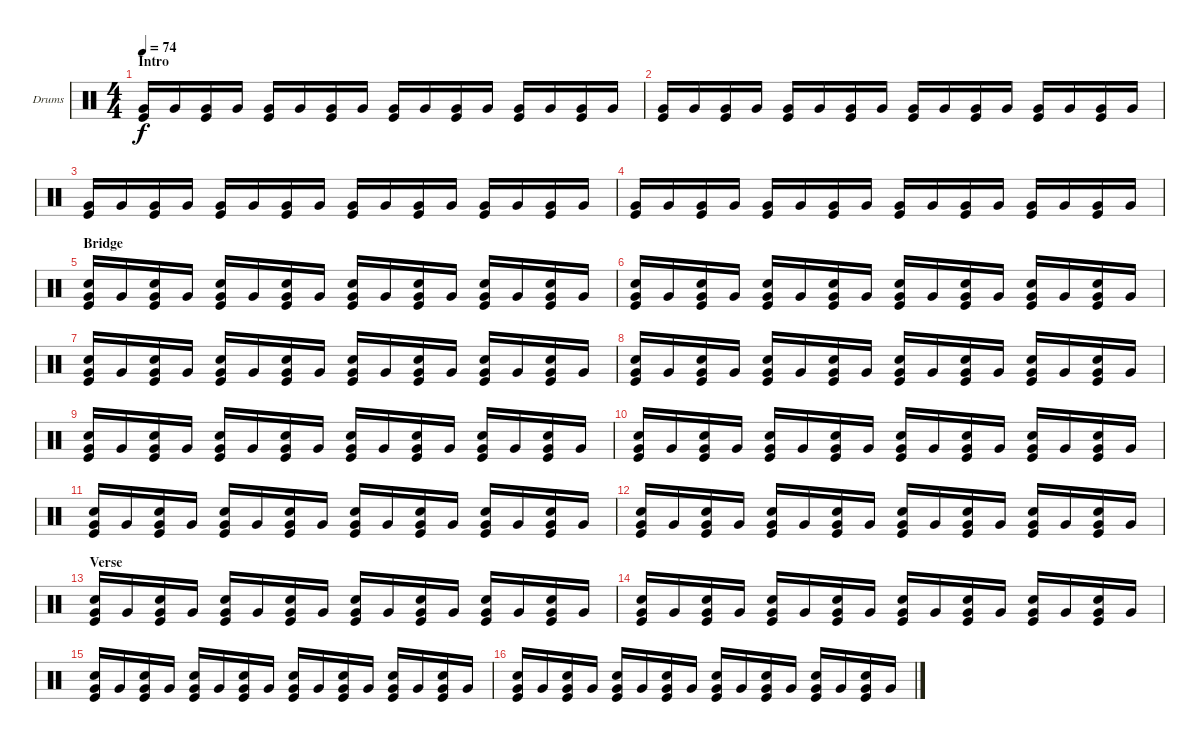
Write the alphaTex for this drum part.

\bracketExtendMode groupsimilarinstruments
\firstSystemTrackNameOrientation horizontal
\otherSystemsTrackNameOrientation horizontal
\track ("Fabrizio" "Drums") {instrument percussion}
\staff {score}
\articulation defaults
\ts (4 4)
\section ("" "Intro")
\tempo 74
\clef neutral
\ks c
("Very Low Tom (hit)" "Kick (hit)").16{dy f} "Very Low Tom (hit)".16 ("Very Low Tom (hit)" "Kick (hit)").16 "Very Low Tom (hit)".16 ("Very Low Tom (hit)" "Kick (hit)").16 "Very Low Tom (hit)".16 ("Very Low Tom (hit)" "Kick (hit)").16 "Very Low Tom (hit)".16 ("Very Low Tom (hit)" "Kick (hit)").16 "Very Low Tom (hit)".16 ("Very Low Tom (hit)" "Kick (hit)").16 "Very Low Tom (hit)".16 ("Very Low Tom (hit)" "Kick (hit)").16 "Very Low Tom (hit)".16 ("Very Low Tom (hit)" "Kick (hit)").16 "Very Low Tom (hit)".16 |
("Very Low Tom (hit)" "Kick (hit)").16 "Very Low Tom (hit)".16 ("Very Low Tom (hit)" "Kick (hit)").16 "Very Low Tom (hit)".16 ("Very Low Tom (hit)" "Kick (hit)").16 "Very Low Tom (hit)".16 ("Very Low Tom (hit)" "Kick (hit)").16 "Very Low Tom (hit)".16 ("Very Low Tom (hit)" "Kick (hit)").16 "Very Low Tom (hit)".16 ("Very Low Tom (hit)" "Kick (hit)").16 "Very Low Tom (hit)".16 ("Very Low Tom (hit)" "Kick (hit)").16 "Very Low Tom (hit)".16 ("Very Low Tom (hit)" "Kick (hit)").16 "Very Low Tom (hit)".16 |
("Very Low Tom (hit)" "Kick (hit)").16 "Very Low Tom (hit)".16 ("Very Low Tom (hit)" "Kick (hit)").16 "Very Low Tom (hit)".16 ("Very Low Tom (hit)" "Kick (hit)").16 "Very Low Tom (hit)".16 ("Very Low Tom (hit)" "Kick (hit)").16 "Very Low Tom (hit)".16 ("Very Low Tom (hit)" "Kick (hit)").16 "Very Low Tom (hit)".16 ("Very Low Tom (hit)" "Kick (hit)").16 "Very Low Tom (hit)".16 ("Very Low Tom (hit)" "Kick (hit)").16 "Very Low Tom (hit)".16 ("Very Low Tom (hit)" "Kick (hit)").16 "Very Low Tom (hit)".16 |
("Very Low Tom (hit)" "Kick (hit)").16 "Very Low Tom (hit)".16 ("Very Low Tom (hit)" "Kick (hit)").16 "Very Low Tom (hit)".16 ("Very Low Tom (hit)" "Kick (hit)").16 "Very Low Tom (hit)".16 ("Very Low Tom (hit)" "Kick (hit)").16 "Very Low Tom (hit)".16 ("Very Low Tom (hit)" "Kick (hit)").16 "Very Low Tom (hit)".16 ("Very Low Tom (hit)" "Kick (hit)").16 "Very Low Tom (hit)".16 ("Very Low Tom (hit)" "Kick (hit)").16 "Very Low Tom (hit)".16 ("Very Low Tom (hit)" "Kick (hit)").16 "Very Low Tom (hit)".16 |
\section ("" "Bridge")
("Very Low Tom (hit)" "Kick (hit)" "Snare (hit) 2").16 "Very Low Tom (hit)".16 ("Very Low Tom (hit)" "Kick (hit)" "Snare (hit) 2").16 "Very Low Tom (hit)".16 ("Very Low Tom (hit)" "Kick (hit)" "Snare (hit) 2").16 "Very Low Tom (hit)".16 ("Very Low Tom (hit)" "Kick (hit)" "Snare (hit) 2").16 "Very Low Tom (hit)".16 ("Very Low Tom (hit)" "Kick (hit)" "Snare (hit) 2").16 "Very Low Tom (hit)".16 ("Very Low Tom (hit)" "Kick (hit)" "Snare (hit) 2").16 "Very Low Tom (hit)".16 ("Very Low Tom (hit)" "Kick (hit)" "Snare (hit) 2").16 "Very Low Tom (hit)".16 ("Very Low Tom (hit)" "Kick (hit)" "Snare (hit) 2").16 "Very Low Tom (hit)".16 |
("Very Low Tom (hit)" "Kick (hit)" "Snare (hit) 2").16 "Very Low Tom (hit)".16 ("Very Low Tom (hit)" "Kick (hit)" "Snare (hit) 2").16 "Very Low Tom (hit)".16 ("Very Low Tom (hit)" "Kick (hit)" "Snare (hit) 2").16 "Very Low Tom (hit)".16 ("Very Low Tom (hit)" "Kick (hit)" "Snare (hit) 2").16 "Very Low Tom (hit)".16 ("Very Low Tom (hit)" "Kick (hit)" "Snare (hit) 2").16 "Very Low Tom (hit)".16 ("Very Low Tom (hit)" "Kick (hit)" "Snare (hit) 2").16 "Very Low Tom (hit)".16 ("Very Low Tom (hit)" "Kick (hit)" "Snare (hit) 2").16 "Very Low Tom (hit)".16 ("Very Low Tom (hit)" "Kick (hit)" "Snare (hit) 2").16 "Very Low Tom (hit)".16 |
("Very Low Tom (hit)" "Kick (hit)" "Snare (hit) 2").16 "Very Low Tom (hit)".16 ("Very Low Tom (hit)" "Kick (hit)" "Snare (hit) 2").16 "Very Low Tom (hit)".16 ("Very Low Tom (hit)" "Kick (hit)" "Snare (hit) 2").16 "Very Low Tom (hit)".16 ("Very Low Tom (hit)" "Kick (hit)" "Snare (hit) 2").16 "Very Low Tom (hit)".16 ("Very Low Tom (hit)" "Kick (hit)" "Snare (hit) 2").16 "Very Low Tom (hit)".16 ("Very Low Tom (hit)" "Kick (hit)" "Snare (hit) 2").16 "Very Low Tom (hit)".16 ("Very Low Tom (hit)" "Kick (hit)" "Snare (hit) 2").16 "Very Low Tom (hit)".16 ("Very Low Tom (hit)" "Kick (hit)" "Snare (hit) 2").16 "Very Low Tom (hit)".16 |
("Very Low Tom (hit)" "Kick (hit)" "Snare (hit) 2").16 "Very Low Tom (hit)".16 ("Very Low Tom (hit)" "Kick (hit)" "Snare (hit) 2").16 "Very Low Tom (hit)".16 ("Very Low Tom (hit)" "Kick (hit)" "Snare (hit) 2").16 "Very Low Tom (hit)".16 ("Very Low Tom (hit)" "Kick (hit)" "Snare (hit) 2").16 "Very Low Tom (hit)".16 ("Very Low Tom (hit)" "Kick (hit)" "Snare (hit) 2").16 "Very Low Tom (hit)".16 ("Very Low Tom (hit)" "Kick (hit)" "Snare (hit) 2").16 "Very Low Tom (hit)".16 ("Very Low Tom (hit)" "Kick (hit)" "Snare (hit) 2").16 "Very Low Tom (hit)".16 ("Very Low Tom (hit)" "Kick (hit)" "Snare (hit) 2").16 "Very Low Tom (hit)".16 |
("Very Low Tom (hit)" "Kick (hit)" "Snare (hit) 2").16 "Very Low Tom (hit)".16 ("Very Low Tom (hit)" "Kick (hit)" "Snare (hit) 2").16 "Very Low Tom (hit)".16 ("Very Low Tom (hit)" "Kick (hit)" "Snare (hit) 2").16 "Very Low Tom (hit)".16 ("Very Low Tom (hit)" "Kick (hit)" "Snare (hit) 2").16 "Very Low Tom (hit)".16 ("Very Low Tom (hit)" "Kick (hit)" "Snare (hit) 2").16 "Very Low Tom (hit)".16 ("Very Low Tom (hit)" "Kick (hit)" "Snare (hit) 2").16 "Very Low Tom (hit)".16 ("Very Low Tom (hit)" "Kick (hit)" "Snare (hit) 2").16 "Very Low Tom (hit)".16 ("Very Low Tom (hit)" "Kick (hit)" "Snare (hit) 2").16 "Very Low Tom (hit)".16 |
("Very Low Tom (hit)" "Kick (hit)" "Snare (hit) 2").16 "Very Low Tom (hit)".16 ("Very Low Tom (hit)" "Kick (hit)" "Snare (hit) 2").16 "Very Low Tom (hit)".16 ("Very Low Tom (hit)" "Kick (hit)" "Snare (hit) 2").16 "Very Low Tom (hit)".16 ("Very Low Tom (hit)" "Kick (hit)" "Snare (hit) 2").16 "Very Low Tom (hit)".16 ("Very Low Tom (hit)" "Kick (hit)" "Snare (hit) 2").16 "Very Low Tom (hit)".16 ("Very Low Tom (hit)" "Kick (hit)" "Snare (hit) 2").16 "Very Low Tom (hit)".16 ("Very Low Tom (hit)" "Kick (hit)" "Snare (hit) 2").16 "Very Low Tom (hit)".16 ("Very Low Tom (hit)" "Kick (hit)" "Snare (hit) 2").16 "Very Low Tom (hit)".16 |
("Very Low Tom (hit)" "Kick (hit)" "Snare (hit) 2").16 "Very Low Tom (hit)".16 ("Very Low Tom (hit)" "Kick (hit)" "Snare (hit) 2").16 "Very Low Tom (hit)".16 ("Very Low Tom (hit)" "Kick (hit)" "Snare (hit) 2").16 "Very Low Tom (hit)".16 ("Very Low Tom (hit)" "Kick (hit)" "Snare (hit) 2").16 "Very Low Tom (hit)".16 ("Very Low Tom (hit)" "Kick (hit)" "Snare (hit) 2").16 "Very Low Tom (hit)".16 ("Very Low Tom (hit)" "Kick (hit)" "Snare (hit) 2").16 "Very Low Tom (hit)".16 ("Very Low Tom (hit)" "Kick (hit)" "Snare (hit) 2").16 "Very Low Tom (hit)".16 ("Very Low Tom (hit)" "Kick (hit)" "Snare (hit) 2").16 "Very Low Tom (hit)".16 |
("Very Low Tom (hit)" "Kick (hit)" "Snare (hit) 2").16 "Very Low Tom (hit)".16 ("Very Low Tom (hit)" "Kick (hit)" "Snare (hit) 2").16 "Very Low Tom (hit)".16 ("Very Low Tom (hit)" "Kick (hit)" "Snare (hit) 2").16 "Very Low Tom (hit)".16 ("Very Low Tom (hit)" "Kick (hit)" "Snare (hit) 2").16 "Very Low Tom (hit)".16 ("Very Low Tom (hit)" "Kick (hit)" "Snare (hit) 2").16 "Very Low Tom (hit)".16 ("Very Low Tom (hit)" "Kick (hit)" "Snare (hit) 2").16 "Very Low Tom (hit)".16 ("Very Low Tom (hit)" "Kick (hit)" "Snare (hit) 2").16 "Very Low Tom (hit)".16 ("Very Low Tom (hit)" "Kick (hit)" "Snare (hit) 2").16 "Very Low Tom (hit)".16 |
\section ("" "Verse")
("Very Low Tom (hit)" "Kick (hit)" "Snare (hit) 2").16 "Very Low Tom (hit)".16 ("Very Low Tom (hit)" "Kick (hit)" "Snare (hit) 2").16 "Very Low Tom (hit)".16 ("Very Low Tom (hit)" "Kick (hit)" "Snare (hit) 2").16 "Very Low Tom (hit)".16 ("Very Low Tom (hit)" "Kick (hit)" "Snare (hit) 2").16 "Very Low Tom (hit)".16 ("Very Low Tom (hit)" "Kick (hit)" "Snare (hit) 2").16 "Very Low Tom (hit)".16 ("Very Low Tom (hit)" "Kick (hit)" "Snare (hit) 2").16 "Very Low Tom (hit)".16 ("Very Low Tom (hit)" "Kick (hit)" "Snare (hit) 2").16 "Very Low Tom (hit)".16 ("Very Low Tom (hit)" "Kick (hit)" "Snare (hit) 2").16 "Very Low Tom (hit)".16 |
("Very Low Tom (hit)" "Kick (hit)" "Snare (hit) 2").16 "Very Low Tom (hit)".16 ("Very Low Tom (hit)" "Kick (hit)" "Snare (hit) 2").16 "Very Low Tom (hit)".16 ("Very Low Tom (hit)" "Kick (hit)" "Snare (hit) 2").16 "Very Low Tom (hit)".16 ("Very Low Tom (hit)" "Kick (hit)" "Snare (hit) 2").16 "Very Low Tom (hit)".16 ("Very Low Tom (hit)" "Kick (hit)" "Snare (hit) 2").16 "Very Low Tom (hit)".16 ("Very Low Tom (hit)" "Kick (hit)" "Snare (hit) 2").16 "Very Low Tom (hit)".16 ("Very Low Tom (hit)" "Kick (hit)" "Snare (hit) 2").16 "Very Low Tom (hit)".16 ("Very Low Tom (hit)" "Kick (hit)" "Snare (hit) 2").16 "Very Low Tom (hit)".16 |
("Very Low Tom (hit)" "Kick (hit)" "Snare (hit) 2").16 "Very Low Tom (hit)".16 ("Very Low Tom (hit)" "Kick (hit)" "Snare (hit) 2").16 "Very Low Tom (hit)".16 ("Very Low Tom (hit)" "Kick (hit)" "Snare (hit) 2").16 "Very Low Tom (hit)".16 ("Very Low Tom (hit)" "Kick (hit)" "Snare (hit) 2").16 "Very Low Tom (hit)".16 ("Very Low Tom (hit)" "Kick (hit)" "Snare (hit) 2").16 "Very Low Tom (hit)".16 ("Very Low Tom (hit)" "Kick (hit)" "Snare (hit) 2").16 "Very Low Tom (hit)".16 ("Very Low Tom (hit)" "Kick (hit)" "Snare (hit) 2").16 "Very Low Tom (hit)".16 ("Very Low Tom (hit)" "Kick (hit)" "Snare (hit) 2").16 "Very Low Tom (hit)".16 |
("Very Low Tom (hit)" "Kick (hit)" "Snare (hit) 2").16 "Very Low Tom (hit)".16 ("Very Low Tom (hit)" "Kick (hit)" "Snare (hit) 2").16 "Very Low Tom (hit)".16 ("Very Low Tom (hit)" "Kick (hit)" "Snare (hit) 2").16 "Very Low Tom (hit)".16 ("Very Low Tom (hit)" "Kick (hit)" "Snare (hit) 2").16 "Very Low Tom (hit)".16 ("Very Low Tom (hit)" "Kick (hit)" "Snare (hit) 2").16 "Very Low Tom (hit)".16 ("Very Low Tom (hit)" "Kick (hit)" "Snare (hit) 2").16 "Very Low Tom (hit)".16 ("Very Low Tom (hit)" "Kick (hit)" "Snare (hit) 2").16 "Very Low Tom (hit)".16 ("Very Low Tom (hit)" "Kick (hit)" "Snare (hit) 2").16 "Very Low Tom (hit)".16
